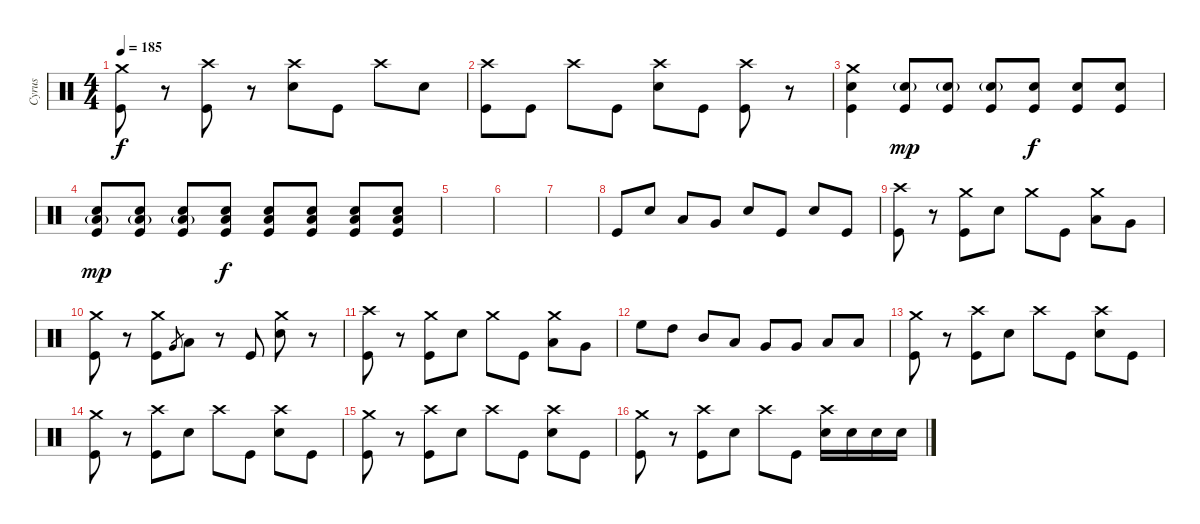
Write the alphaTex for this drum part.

\track ("Cyrus" "Cyrus") {instrument percussion}
\staff {score}
\articulation defaults
\ts (4 4)
\tempo 185
\clef neutral
\ks c
("Crash medium (hit)" "Kick (hit)").8{dy f} r.8 ("Crash high (hit)" "Kick (hit)").8 r.8 ("Crash high (hit)" "Electric Snare (hit)").8 "Kick (hit)".8 "Crash high (hit)".8 "Electric Snare (hit)".8 |
("Crash high (hit)" "Kick (hit)").8 "Kick (hit)".8 "Crash high (hit)".8 "Kick (hit)".8 ("Crash high (hit)" "Electric Snare (hit)").8 "Kick (hit)".8 ("Crash high (hit)" "Kick (hit)").8 r.8 |
("Crash medium (hit)" "Electric Snare (hit)" "Kick (hit)").4 ("Electric Snare (hit)"{g} "Kick (hit)").8{dy mp} ("Electric Snare (hit)"{g} "Kick (hit)").8 ("Electric Snare (hit)"{g} "Kick (hit)").8 ("Electric Snare (hit)" "Kick (hit)").8{dy f} ("Electric Snare (hit)" "Kick (hit)").8 ("Electric Snare (hit)" "Kick (hit)").8 |
("Low Tom (hit)"{g} "Electric Snare (hit)" "Kick (hit)").8{dy mp} ("Low Tom (hit)"{g} "Electric Snare (hit)" "Kick (hit)").8 ("Low Tom (hit)"{g} "Electric Snare (hit)" "Kick (hit)").8 ("Low Tom (hit)" "Electric Snare (hit)" "Kick (hit)").8{dy f} ("Low Tom (hit)" "Electric Snare (hit)" "Kick (hit)").8 ("Low Tom (hit)" "Electric Snare (hit)" "Kick (hit)").8 ("Low Tom (hit)" "Electric Snare (hit)" "Kick (hit)").8 ("Low Tom (hit)" "Electric Snare (hit)" "Kick (hit)").8 |
|
|
|
"Kick (hit)".8 "Electric Snare (hit)".8 "Low Tom (hit)".8 "Very Low Tom (hit)".8 "Electric Snare (hit)".8 "Kick (hit)".8 "Electric Snare (hit)".8 "Kick (hit)".8 |
("Crash high (hit)" "Kick (hit)").8 r.8 ("Crash medium (hit)" "Kick (hit)").8 "Electric Snare (hit)".8 "Crash medium (hit)".8 "Kick (hit)".8 ("Crash medium (hit)" "Low Tom (hit)").8 "Very Low Tom (hit)".8 |
("Crash medium (hit)" "Kick (hit)").8 r.8 ("Crash medium (hit)" "Kick (hit)").8 "Very Low Tom (hit)".8{gr} "Low Tom (hit)".8 r.8 "Kick (hit)".8 ("Crash medium (hit)" "Electric Snare (hit)").8 r.8 |
("Crash high (hit)" "Kick (hit)").8 r.8 ("Crash medium (hit)" "Kick (hit)").8 "Electric Snare (hit)".8 "Crash medium (hit)".8 "Kick (hit)".8 ("Crash medium (hit)" "Low Tom (hit)").8 "Very Low Tom (hit)".8 |
"High Floor Tom (hit)".8 "High Tom (hit)".8 "Mid Tom (hit)".8 "Low Tom (hit)".8 "Very Low Tom (hit)".8 "Very Low Tom (hit)".8 "Low Floor Tom (hit)".8 "Low Floor Tom (hit)".8 |
("Crash medium (hit)" "Kick (hit)").8 r.8 ("Crash high (hit)" "Kick (hit)").8 "Electric Snare (hit)".8 "Crash high (hit)".8 "Kick (hit)".8 ("Crash high (hit)" "Electric Snare (hit)").8 "Kick (hit)".8 |
("Crash medium (hit)" "Kick (hit)").8 r.8 ("Crash high (hit)" "Kick (hit)").8 "Electric Snare (hit)".8 "Crash high (hit)".8 "Kick (hit)".8 ("Crash high (hit)" "Electric Snare (hit)").8 "Kick (hit)".8 |
("Crash medium (hit)" "Kick (hit)").8 r.8 ("Crash high (hit)" "Kick (hit)").8 "Electric Snare (hit)".8 "Crash high (hit)".8 "Kick (hit)".8 ("Crash high (hit)" "Electric Snare (hit)").8 "Kick (hit)".8 |
("Crash medium (hit)" "Kick (hit)").8 r.8 ("Crash high (hit)" "Kick (hit)").8 "Electric Snare (hit)".8 "Crash high (hit)".8 "Kick (hit)".8 ("Crash high (hit)" "Electric Snare (hit)").16 "Electric Snare (hit)".16 "Electric Snare (hit)".16 "Electric Snare (hit)".16
